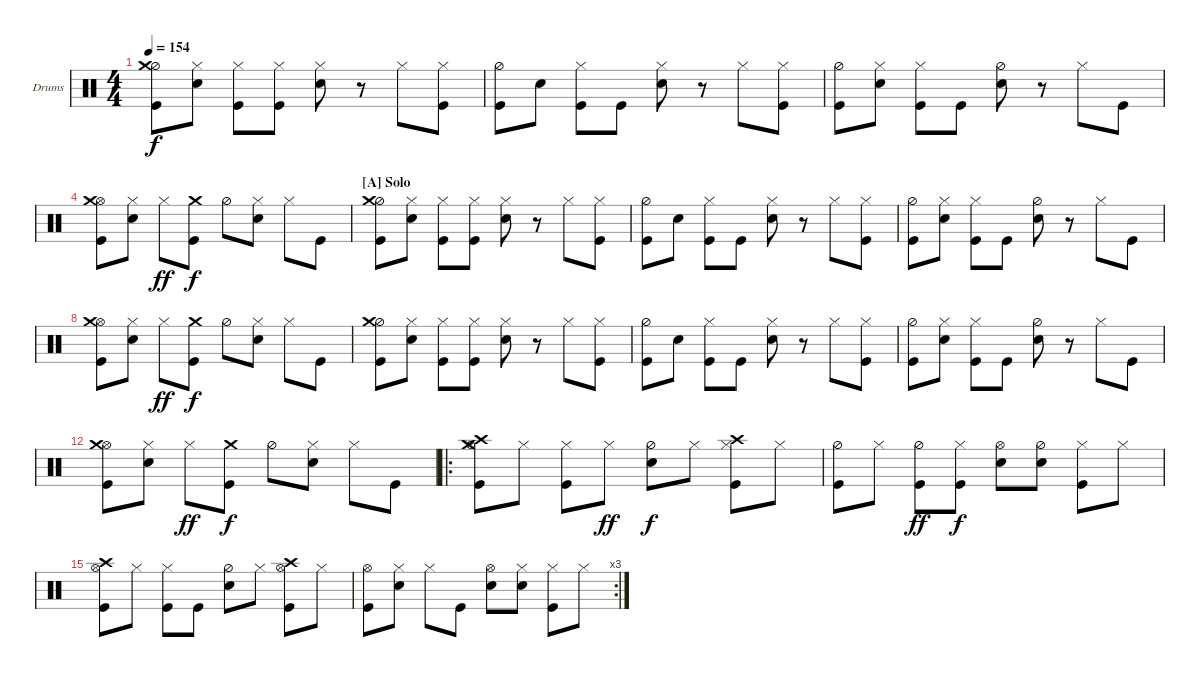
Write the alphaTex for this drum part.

\defaultSystemsLayout 4
\bracketExtendMode nobrackets
\firstSystemTrackNameOrientation horizontal
\otherSystemsTrackNameOrientation horizontal
\defaultBarNumberDisplay FirstOfSystem
\track ("Drum" "Drums") {instrument percussion}
\staff {score}
\articulation defaults
\ts (4 4)
\tempo 154
\clef neutral
\ks c
("Kick (hit)" "Hi-Hat (half)" "Crash medium (hit)").8{dy f} ("Snare (hit) 2" "Hi-Hat (closed)").8 ("Hi-Hat (closed)" "Kick (hit)").8 ("Kick (hit)" "Hi-Hat (closed)").8 ("Hi-Hat (closed)" "Snare (hit) 2").8 r.8 "Hi-Hat (closed)".8 ("Kick (hit)" "Hi-Hat (closed)").8 |
("Kick (hit)" "Hi-Hat (half)").8 "Snare (hit) 2".8 ("Hi-Hat (closed)" "Kick (hit)").8 "Kick (hit)".8 ("Hi-Hat (closed)" "Snare (hit) 2").8 r.8 "Hi-Hat (closed)".8 ("Kick (hit)" "Hi-Hat (closed)").8 |
("Kick (hit)" "Hi-Hat (half)").8 ("Hi-Hat (closed)" "Snare (hit) 2").8 ("Hi-Hat (closed)" "Kick (hit)").8 "Kick (hit)".8 ("Hi-Hat (half)" "Snare (hit) 2").8 r.8 "Hi-Hat (closed)".8 "Kick (hit)".8 |
("Kick (hit)" "Hi-Hat (open)" "Crash medium (hit)").8 ("Snare (hit) 2" "Hi-Hat (closed)").8 "Hi-Hat (closed)".8{dy ff} ("Kick (hit)" "Crash medium (hit)").8{dy f} "Hi-Hat (half)".8 ("Snare (hit) 2" "Hi-Hat (closed)").8 "Hi-Hat (closed)".8 "Kick (hit)".8 |
\section ("A" "Solo")
\scale
0.25 ("Kick (hit)" "Hi-Hat (half)" "Crash medium (hit)").8 ("Snare (hit) 2" "Hi-Hat (closed)").8 ("Hi-Hat (closed)" "Kick (hit)").8 ("Kick (hit)" "Hi-Hat (closed)").8 ("Hi-Hat (closed)" "Snare (hit) 2").8 r.8 "Hi-Hat (closed)".8 ("Kick (hit)" "Hi-Hat (closed)").8 |
\scale
0.25 ("Kick (hit)" "Hi-Hat (half)").8 "Snare (hit) 2".8 ("Hi-Hat (closed)" "Kick (hit)").8 "Kick (hit)".8 ("Hi-Hat (closed)" "Snare (hit) 2").8 r.8 "Hi-Hat (closed)".8 ("Kick (hit)" "Hi-Hat (closed)").8 |
\scale
0.25 ("Kick (hit)" "Hi-Hat (half)").8 ("Hi-Hat (closed)" "Snare (hit) 2").8 ("Hi-Hat (closed)" "Kick (hit)").8 "Kick (hit)".8 ("Hi-Hat (half)" "Snare (hit) 2").8 r.8 "Hi-Hat (closed)".8 "Kick (hit)".8 |
\scale
0.25 ("Kick (hit)" "Hi-Hat (open)" "Crash medium (hit)").8 ("Snare (hit) 2" "Hi-Hat (closed)").8 "Hi-Hat (closed)".8{dy ff} ("Kick (hit)" "Crash medium (hit)").8{dy f} "Hi-Hat (half)".8 ("Snare (hit) 2" "Hi-Hat (closed)").8 "Hi-Hat (closed)".8 "Kick (hit)".8 |
("Kick (hit)" "Hi-Hat (half)" "Crash medium (hit)").8 ("Snare (hit) 2" "Hi-Hat (closed)").8 ("Hi-Hat (closed)" "Kick (hit)").8 ("Kick (hit)" "Hi-Hat (closed)").8 ("Hi-Hat (closed)" "Snare (hit) 2").8 r.8 "Hi-Hat (closed)".8 ("Kick (hit)" "Hi-Hat (closed)").8 |
("Kick (hit)" "Hi-Hat (half)").8 "Snare (hit) 2".8 ("Hi-Hat (closed)" "Kick (hit)").8 "Kick (hit)".8 ("Hi-Hat (closed)" "Snare (hit) 2").8 r.8 "Hi-Hat (closed)".8 ("Kick (hit)" "Hi-Hat (closed)").8 |
("Kick (hit)" "Hi-Hat (half)").8 ("Hi-Hat (closed)" "Snare (hit) 2").8 ("Hi-Hat (closed)" "Kick (hit)").8 "Kick (hit)".8 ("Hi-Hat (half)" "Snare (hit) 2").8 r.8 "Hi-Hat (closed)".8 "Kick (hit)".8 |
("Kick (hit)" "Hi-Hat (open)" "Crash medium (hit)").8 ("Snare (hit) 2" "Hi-Hat (closed)").8 "Hi-Hat (closed)".8{dy ff} ("Kick (hit)" "Crash medium (hit)").8{dy f} "Hi-Hat (half)".8 ("Snare (hit) 2" "Hi-Hat (closed)").8 "Hi-Hat (closed)".8 "Kick (hit)".8 |
\ro
("Kick (hit)" "Hi-Hat (open)" "Crash high (hit)" "Crash medium (hit)").8 "Hi-Hat (closed)".8 ("Hi-Hat (closed)" "Kick (hit)").8 "Hi-Hat (closed)".8{dy ff} ("Snare (hit) 2" "Hi-Hat (half)").8{dy f} "Hi-Hat (closed)".8 ("Hi-Hat (closed)" "Kick (hit)" "Crash high (hit)").8 "Hi-Hat (closed)".8 |
("Kick (hit)" "Hi-Hat (half)").8 "Hi-Hat (closed)".8 ("Hi-Hat (half)" "Kick (hit)").8{dy ff} ("Hi-Hat (closed)" "Kick (hit)").8{dy f} ("Snare (hit) 2" "Hi-Hat (open)").8 ("Hi-Hat (half)" "Snare (hit) 2").8 ("Hi-Hat (closed)" "Kick (hit)").8 "Hi-Hat (closed)".8 |
("Kick (hit)" "Hi-Hat (open)" "Crash high (hit)").8 "Hi-Hat (closed)".8 ("Hi-Hat (closed)" "Kick (hit)").8 "Kick (hit)".8 ("Snare (hit) 2" "Hi-Hat (half)").8 "Hi-Hat (closed)".8 ("Kick (hit)" "Crash high (hit)" "Hi-Hat (open)").8 "Hi-Hat (closed)".8 |
\rc 3
("Kick (hit)" "Hi-Hat (open)").8 ("Hi-Hat (closed)" "Snare (hit) 2").8 "Hi-Hat (closed)".8 "Kick (hit)".8 ("Snare (hit) 2" "Hi-Hat (open)").8 ("Hi-Hat (closed)" "Snare (hit) 2").8 ("Hi-Hat (closed)" "Kick (hit)").8 "Hi-Hat (closed)".8
